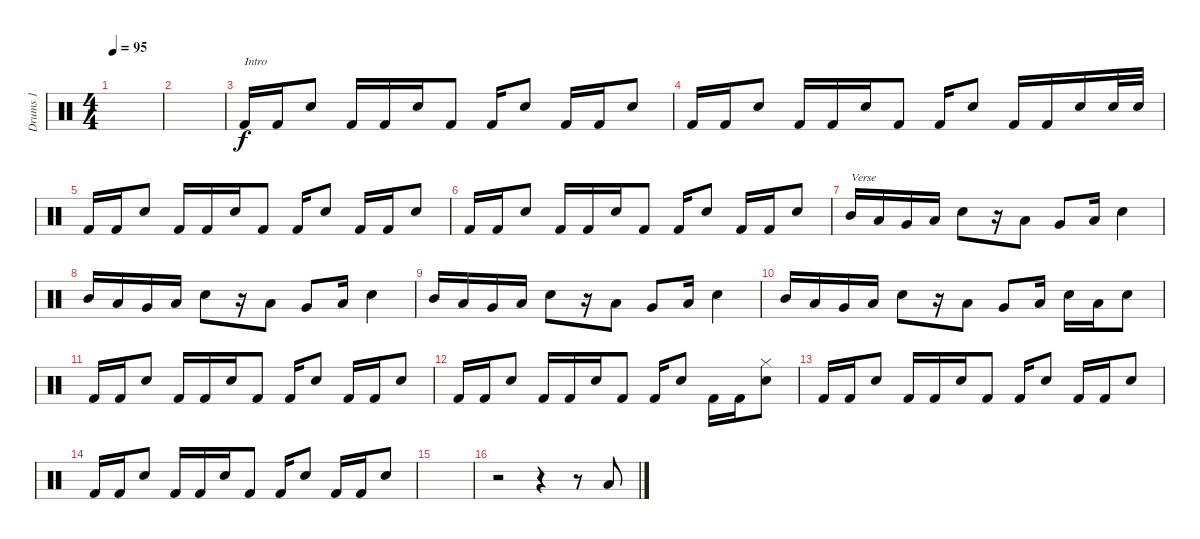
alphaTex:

\track ("Drums 1" "Drums 1") {instrument percussion}
\staff {score}
\articulation defaults
\ts (4 4)
\tempo 95
\clef neutral
\ks c
|
|
"Kick (hit) 2".16{txt "Intro"} "Kick (hit) 2".16 "Snare (hit) 2".8 "Kick (hit) 2".16 "Kick (hit) 2".16 "Snare (hit) 2".16 "Kick (hit) 2".8 "Kick (hit) 2".16 "Snare (hit) 2".8 "Kick (hit) 2".16 "Kick (hit) 2".16 "Snare (hit) 2".8 |
"Kick (hit) 2".16 "Kick (hit) 2".16 "Snare (hit) 2".8 "Kick (hit) 2".16 "Kick (hit) 2".16 "Snare (hit) 2".16 "Kick (hit) 2".8 "Kick (hit) 2".16 "Snare (hit) 2".8 "Kick (hit) 2".16 "Kick (hit) 2".16 "Snare (hit) 2".16 "Snare (hit) 2".32 "Snare (hit) 2".32 |
"Kick (hit) 2".16 "Kick (hit) 2".16 "Snare (hit) 2".8 "Kick (hit) 2".16 "Kick (hit) 2".16 "Snare (hit) 2".16 "Kick (hit) 2".8 "Kick (hit) 2".16 "Snare (hit) 2".8 "Kick (hit) 2".16 "Kick (hit) 2".16 "Snare (hit) 2".8 |
"Kick (hit) 2".16 "Kick (hit) 2".16 "Snare (hit) 2".8 "Kick (hit) 2".16 "Kick (hit) 2".16 "Snare (hit) 2".16 "Kick (hit) 2".8 "Kick (hit) 2".16 "Snare (hit) 2".8 "Kick (hit) 2".16 "Kick (hit) 2".16 "Snare (hit) 2".8 |
"Mid Tom (hit)".16{txt "Verse"} "Low Tom (hit)".16 "Very Low Tom (hit)".16 "Low Floor Tom (hit)".16 "Snare (hit) 2".8 r.16 "Low Tom (hit)".8 "Very Low Tom (hit)".8 "Low Floor Tom (hit)".16 "Snare (hit) 2".4 |
"Mid Tom (hit)".16 "Low Tom (hit)".16 "Very Low Tom (hit)".16 "Low Floor Tom (hit)".16 "Snare (hit) 2".8 r.16 "Low Tom (hit)".8 "Very Low Tom (hit)".8 "Low Floor Tom (hit)".16 "Snare (hit) 2".4 |
"Mid Tom (hit)".16 "Low Tom (hit)".16 "Very Low Tom (hit)".16 "Low Floor Tom (hit)".16 "Snare (hit) 2".8 r.16 "Low Tom (hit)".8 "Very Low Tom (hit)".8 "Low Floor Tom (hit)".16 "Snare (hit) 2".4 |
"Mid Tom (hit)".16 "Low Tom (hit)".16 "Very Low Tom (hit)".16 "Low Floor Tom (hit)".16 "Snare (hit) 2".8 r.16 "Low Tom (hit)".8 "Very Low Tom (hit)".8 "Low Floor Tom (hit)".16 "Snare (hit) 2".16 "Low Floor Tom (hit)".16 "Snare (hit) 2".8 |
"Kick (hit) 2".16 "Kick (hit) 2".16 "Snare (hit) 2".8 "Kick (hit) 2".16 "Kick (hit) 2".16 "Snare (hit) 2".16 "Kick (hit) 2".8 "Kick (hit) 2".16 "Snare (hit) 2".8 "Kick (hit) 2".16 "Kick (hit) 2".16 "Snare (hit) 2".8 |
"Kick (hit) 2".16 "Kick (hit) 2".16 "Snare (hit) 2".8 "Kick (hit) 2".16 "Kick (hit) 2".16 "Snare (hit) 2".16 "Kick (hit) 2".8 "Kick (hit) 2".16 "Snare (hit) 2".8 "Kick (hit) 2".16 "Kick (hit) 2".16 ("Snare (hit) 2" "Hi-Hat (closed)").8 |
"Kick (hit) 2".16 "Kick (hit) 2".16 "Snare (hit) 2".8 "Kick (hit) 2".16 "Kick (hit) 2".16 "Snare (hit) 2".16 "Kick (hit) 2".8 "Kick (hit) 2".16 "Snare (hit) 2".8 "Kick (hit) 2".16 "Kick (hit) 2".16 "Snare (hit) 2".8 |
"Kick (hit) 2".16 "Kick (hit) 2".16 "Snare (hit) 2".8 "Kick (hit) 2".16 "Kick (hit) 2".16 "Snare (hit) 2".16 "Kick (hit) 2".8 "Kick (hit) 2".16 "Snare (hit) 2".8 "Kick (hit) 2".16 "Kick (hit) 2".16 "Snare (hit) 2".8 |
|
r.2 r.4 r.8 "Low Floor Tom (hit)".8
